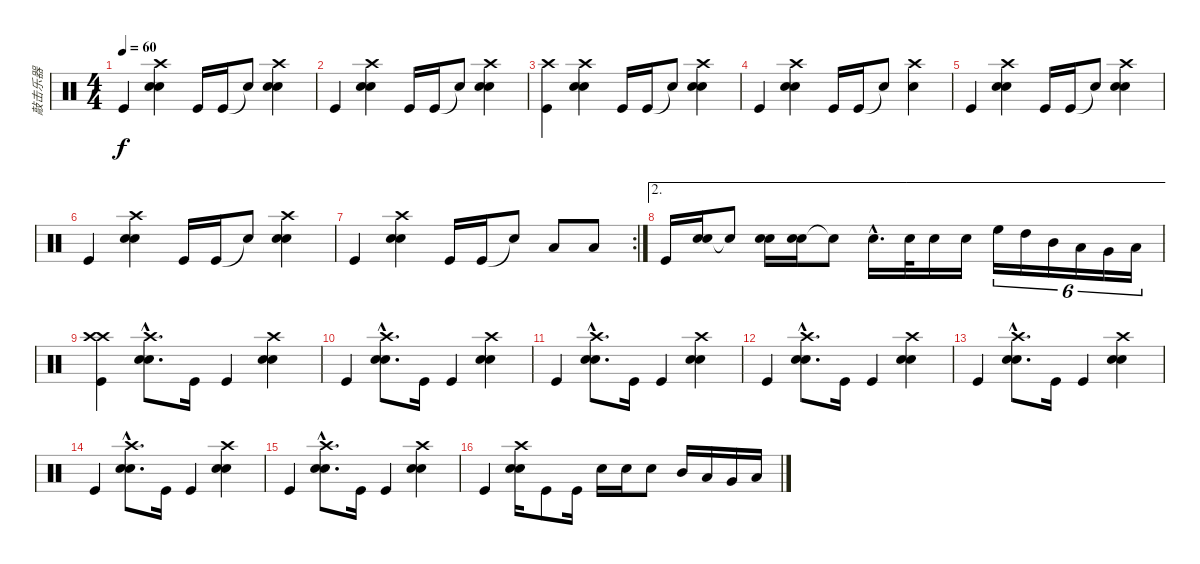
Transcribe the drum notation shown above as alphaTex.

\track ("敲击乐器" "敲击乐器") {instrument percussion}
\staff {score}
\articulation defaults
\ts (4 4)
\tempo 60
\clef neutral
\ks c "Kick (hit)".4{dy f}
("Snare (hit) 2" "Crash high (hit)" "Snare (hit) 2").4 "Kick (hit)".16 "Kick (hit)".16 "Snare (hit)"{t}.8 ("Snare (hit) 2" "Crash high (hit)" "Snare (hit) 2").4 |
"Kick (hit)".4 ("Snare (hit) 2" "Crash high (hit)" "Snare (hit) 2").4 "Kick (hit)".16 "Kick (hit)".16 "Snare (hit)"{t}.8 ("Snare (hit) 2" "Crash high (hit)" "Snare (hit) 2").4 |
("Crash high (hit)" "Kick (hit)").4 ("Snare (hit) 2" "Crash high (hit)" "Snare (hit) 2").4 "Kick (hit)".16 "Kick (hit)".16 "Snare (hit)"{t}.8 ("Snare (hit) 2" "Crash high (hit)" "Snare (hit) 2").4 |
"Kick (hit)".4 ("Snare (hit) 2" "Crash high (hit)" "Snare (hit) 2").4 "Kick (hit)".16 "Kick (hit)".16 "Snare (hit)"{t}.8 ("Crash high (hit)" "Snare (hit) 2").4 |
"Kick (hit)".4 ("Snare (hit) 2" "Crash high (hit)" "Snare (hit) 2").4 "Kick (hit)".16 "Kick (hit)".16 "Snare (hit)"{t}.8 ("Snare (hit) 2" "Crash high (hit)" "Snare (hit) 2").4 |
"Kick (hit)".4 ("Snare (hit) 2" "Crash high (hit)" "Snare (hit) 2").4 "Kick (hit)".16 "Kick (hit)".16 "Snare (hit)"{t}.8 ("Snare (hit) 2" "Crash high (hit)" "Snare (hit) 2").4 |
\rc 2 "Kick (hit)".4
("Snare (hit) 2" "Snare (hit) 2" "Crash high (hit)").4 "Kick (hit)".16 "Kick (hit)".16 "Snare (hit)"{t}.8 "Low Tom (hit)".8 "Low Tom (hit)".8 |
\ae 2 "Kick (hit)".16
("Snare (hit) 2" "Snare (hit) 2").16 "Snare (hit)"{t}.8 ("Snare (hit) 2" "Snare (hit) 2").16 ("Snare (hit) 2" "Snare (hit) 2").16 "Snare (hit)"{t}.8 "Snare (hit) 2"{hac}.16{d} "Snare (hit) 2".32 "Snare (hit) 2".16 "Snare (hit) 2".16 "High Floor Tom (hit)".16{tu (6 4)} "High Tom (hit)".16{tu (6 4)} "Mid Tom (hit)".16{tu (6 4)} "Low Tom (hit)".16{tu (6 4)} "Very Low Tom (hit)".16{tu (6 4)} "Low Floor Tom (hit)".16{tu (6 4)} |
("Crash high (hit)" "Crash high (hit)" "Kick (hit)").4 ("Snare (hit) 2"{hac} "Crash high (hit)"{hac} "Snare (hit) 2"{hac}).8{d} "Kick (hit)".16 "Kick (hit)".4 ("Snare (hit) 2" "Crash high (hit)" "Snare (hit) 2").4 |
"Kick (hit)".4 ("Crash high (hit)"{hac} "Snare (hit) 2"{hac} "Snare (hit) 2"{hac}).8{d} "Kick (hit)".16 "Kick (hit)".4 ("Crash high (hit)" "Snare (hit) 2" "Snare (hit) 2").4 |
"Kick (hit)".4 ("Crash high (hit)"{hac} "Snare (hit) 2"{hac} "Snare (hit) 2"{hac}).8{d} "Kick (hit)".16 "Kick (hit)".4 ("Crash high (hit)" "Snare (hit) 2" "Snare (hit) 2").4 |
"Kick (hit)".4 ("Crash high (hit)"{hac} "Snare (hit) 2"{hac} "Snare (hit) 2"{hac}).8{d} "Kick (hit)".16 "Kick (hit)".4 ("Crash high (hit)" "Snare (hit) 2" "Snare (hit) 2").4 |
"Kick (hit)".4 ("Crash high (hit)"{hac} "Snare (hit) 2"{hac} "Snare (hit) 2"{hac}).8{d} "Kick (hit)".16 "Kick (hit)".4 ("Crash high (hit)" "Snare (hit) 2" "Snare (hit) 2").4 |
"Kick (hit)".4 ("Crash high (hit)"{hac} "Snare (hit) 2"{hac} "Snare (hit) 2"{hac}).8{d} "Kick (hit)".16 "Kick (hit)".4 ("Crash high (hit)" "Snare (hit) 2" "Snare (hit) 2").4 |
"Kick (hit)".4 ("Crash high (hit)"{hac} "Snare (hit) 2"{hac} "Snare (hit) 2"{hac}).8{d} "Kick (hit)".16 "Kick (hit)".4 ("Crash high (hit)" "Snare (hit) 2" "Snare (hit) 2").4 |
"Kick (hit)".4 ("Crash high (hit)" "Snare (hit) 2" "Snare (hit) 2").16 "Kick (hit)".8 "Kick (hit)".16 "Snare (hit) 2".16 "Snare (hit) 2".16 "Snare (hit) 2".8 "Mid Tom (hit)".16 "Low Tom (hit)".16 "Very Low Tom (hit)".16 "Low Floor Tom (hit)".16
